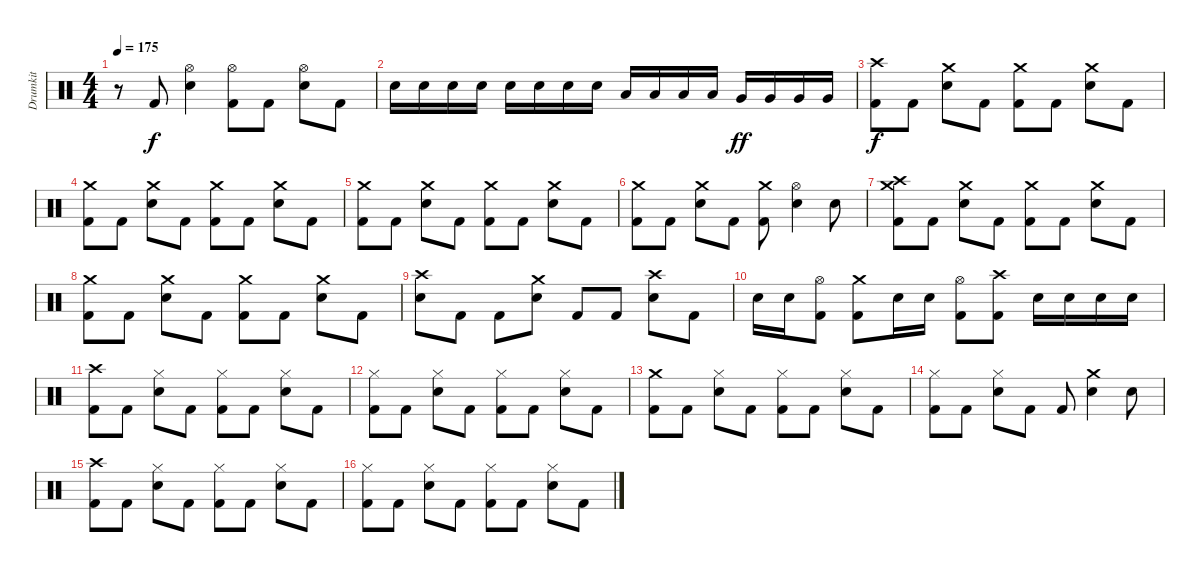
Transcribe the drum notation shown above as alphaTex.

\track ("Drumkit" "Drumkit") {instrument percussion}
\staff {score}
\articulation defaults
\ts (4 4)
\tempo 175
\clef neutral
\ks c
r.8{dy f} "Kick (hit) 2".8 ("Hi-Hat (open)" "Electric Snare (hit)").4 ("Hi-Hat (open)" "Kick (hit) 2").8 "Kick (hit) 2".8 ("Hi-Hat (open)" "Electric Snare (hit)").8 "Kick (hit) 2".8 |
"Electric Snare (hit)".16 "Electric Snare (hit)".16 "Electric Snare (hit)".16 "Electric Snare (hit)".16 "Electric Snare (hit)".16 "Electric Snare (hit)".16 "Electric Snare (hit)".16 "Electric Snare (hit)".16 "Low Tom (hit)".16 "Low Tom (hit)".16 "Low Tom (hit)".16 "Low Tom (hit)".16 "Very Low Tom (hit)".16{dy ff} "Very Low Tom (hit)".16 "Very Low Tom (hit)".16 "Very Low Tom (hit)".16 |
("Crash high (hit)" "Kick (hit) 2").8{dy f} "Kick (hit) 2".8 ("Crash medium (hit)" "Electric Snare (hit)").8 "Kick (hit) 2".8 ("Crash medium (hit)" "Kick (hit) 2").8 "Kick (hit) 2".8 ("Crash medium (hit)" "Electric Snare (hit)").8 "Kick (hit) 2".8 |
("Crash medium (hit)" "Kick (hit) 2").8 "Kick (hit) 2".8 ("Crash medium (hit)" "Electric Snare (hit)").8 "Kick (hit) 2".8 ("Crash medium (hit)" "Kick (hit) 2").8 "Kick (hit) 2".8 ("Crash medium (hit)" "Electric Snare (hit)").8 "Kick (hit) 2".8 |
("Crash medium (hit)" "Kick (hit) 2").8 "Kick (hit) 2".8 ("Crash medium (hit)" "Electric Snare (hit)").8 "Kick (hit) 2".8 ("Crash medium (hit)" "Kick (hit) 2").8 "Kick (hit) 2".8 ("Crash medium (hit)" "Electric Snare (hit)").8 "Kick (hit) 2".8 |
("Crash medium (hit)" "Kick (hit) 2").8 "Kick (hit) 2".8 ("Crash medium (hit)" "Electric Snare (hit)").8 "Kick (hit) 2".8 ("Crash medium (hit)" "Kick (hit) 2").8 ("Hi-Hat (open)" "Electric Snare (hit)").4 "Electric Snare (hit)".8 |
("Crash high (hit)" "Crash medium (hit)" "Kick (hit) 2").8 "Kick (hit) 2".8 ("Crash medium (hit)" "Electric Snare (hit)").8 "Kick (hit) 2".8 ("Crash medium (hit)" "Kick (hit) 2").8 "Kick (hit) 2".8 ("Crash medium (hit)" "Electric Snare (hit)").8 "Kick (hit) 2".8 |
("Crash medium (hit)" "Kick (hit) 2").8 "Kick (hit) 2".8 ("Crash medium (hit)" "Electric Snare (hit)").8 "Kick (hit) 2".8 ("Crash medium (hit)" "Kick (hit) 2").8 "Kick (hit) 2".8 ("Crash medium (hit)" "Electric Snare (hit)").8 "Kick (hit) 2".8 |
("Crash high (hit)" "Electric Snare (hit)").8 "Kick (hit) 2".8 "Kick (hit) 2".8 ("Crash medium (hit)" "Electric Snare (hit)").8 "Kick (hit) 2".8 "Kick (hit) 2".8 ("Crash high (hit)" "Electric Snare (hit)").8 "Kick (hit) 2".8 |
"Electric Snare (hit)".16 "Electric Snare (hit)".16 ("Hi-Hat (open)" "Kick (hit) 2").8 ("Crash medium (hit)" "Kick (hit) 2").8 "Electric Snare (hit)".16 "Electric Snare (hit)".16 ("Hi-Hat (open)" "Kick (hit) 2").8 ("Crash high (hit)" "Kick (hit) 2").8 "Electric Snare (hit)".16 "Electric Snare (hit)".16 "Electric Snare (hit)".16 "Electric Snare (hit)".16 |
("Crash high (hit)" "Kick (hit) 2").8 "Kick (hit) 2".8 ("Hi-Hat (closed)" "Electric Snare (hit)").8 "Kick (hit) 2".8 ("Hi-Hat (closed)" "Kick (hit) 2").8 "Kick (hit) 2".8 ("Hi-Hat (closed)" "Electric Snare (hit)").8 "Kick (hit) 2".8 |
("Hi-Hat (closed)" "Kick (hit) 2").8 "Kick (hit) 2".8 ("Hi-Hat (closed)" "Electric Snare (hit)").8 "Kick (hit) 2".8 ("Hi-Hat (closed)" "Kick (hit) 2").8 "Kick (hit) 2".8 ("Hi-Hat (closed)" "Electric Snare (hit)").8 "Kick (hit) 2".8 |
("Crash medium (hit)" "Kick (hit) 2").8 "Kick (hit) 2".8 ("Hi-Hat (closed)" "Electric Snare (hit)").8 "Kick (hit) 2".8 ("Hi-Hat (closed)" "Kick (hit) 2").8 "Kick (hit) 2".8 ("Hi-Hat (closed)" "Electric Snare (hit)").8 "Kick (hit) 2".8 |
("Hi-Hat (closed)" "Kick (hit) 2").8 "Kick (hit) 2".8 ("Hi-Hat (closed)" "Electric Snare (hit)").8 "Kick (hit) 2".8 "Kick (hit) 2".8 ("Crash medium (hit)" "Electric Snare (hit)").4 "Electric Snare (hit)".8 |
("Crash high (hit)" "Kick (hit) 2").8 "Kick (hit) 2".8 ("Hi-Hat (closed)" "Electric Snare (hit)").8 "Kick (hit) 2".8 ("Hi-Hat (closed)" "Kick (hit) 2").8 "Kick (hit) 2".8 ("Hi-Hat (closed)" "Electric Snare (hit)").8 "Kick (hit) 2".8 |
("Hi-Hat (closed)" "Kick (hit) 2").8 "Kick (hit) 2".8 ("Hi-Hat (closed)" "Electric Snare (hit)").8 "Kick (hit) 2".8 ("Hi-Hat (closed)" "Kick (hit) 2").8 "Kick (hit) 2".8 ("Hi-Hat (closed)" "Electric Snare (hit)").8 "Kick (hit) 2".8
